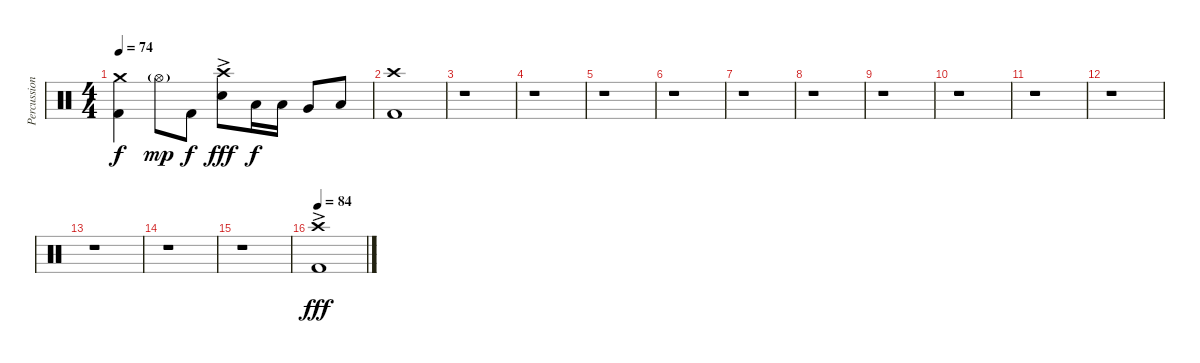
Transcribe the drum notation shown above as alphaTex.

\track ("Percussion" "Percussion") {instrument percussion}
\staff {score}
\articulation defaults
\ts (4 4)
\tempo 74
\clef neutral
\ks c
("Crash medium (hit)" "Kick (hit) 2").4{dy f} "Hi-Hat (open)"{g}.8{dy mp} "Kick (hit) 2".8{dy f} ("Crash high (hit)" "Snare (hit) 2"{ac}).8{dy fff} "Low Tom (hit)".16{dy f} "Low Tom (hit)".16 "Very Low Tom (hit)".8 "Low Floor Tom (hit)".8 |
("Crash high (hit)" "Kick (hit) 2").1 |
r.1 |
r.1 |
r.1 |
r.1 |
r.1 |
r.1 |
r.1 |
r.1 |
r.1 |
r.1 |
r.1 |
r.1 |
r.1 |
\tempo 84
("Crash high (hit)"{ac} "Kick (hit) 2").1{dy fff}
